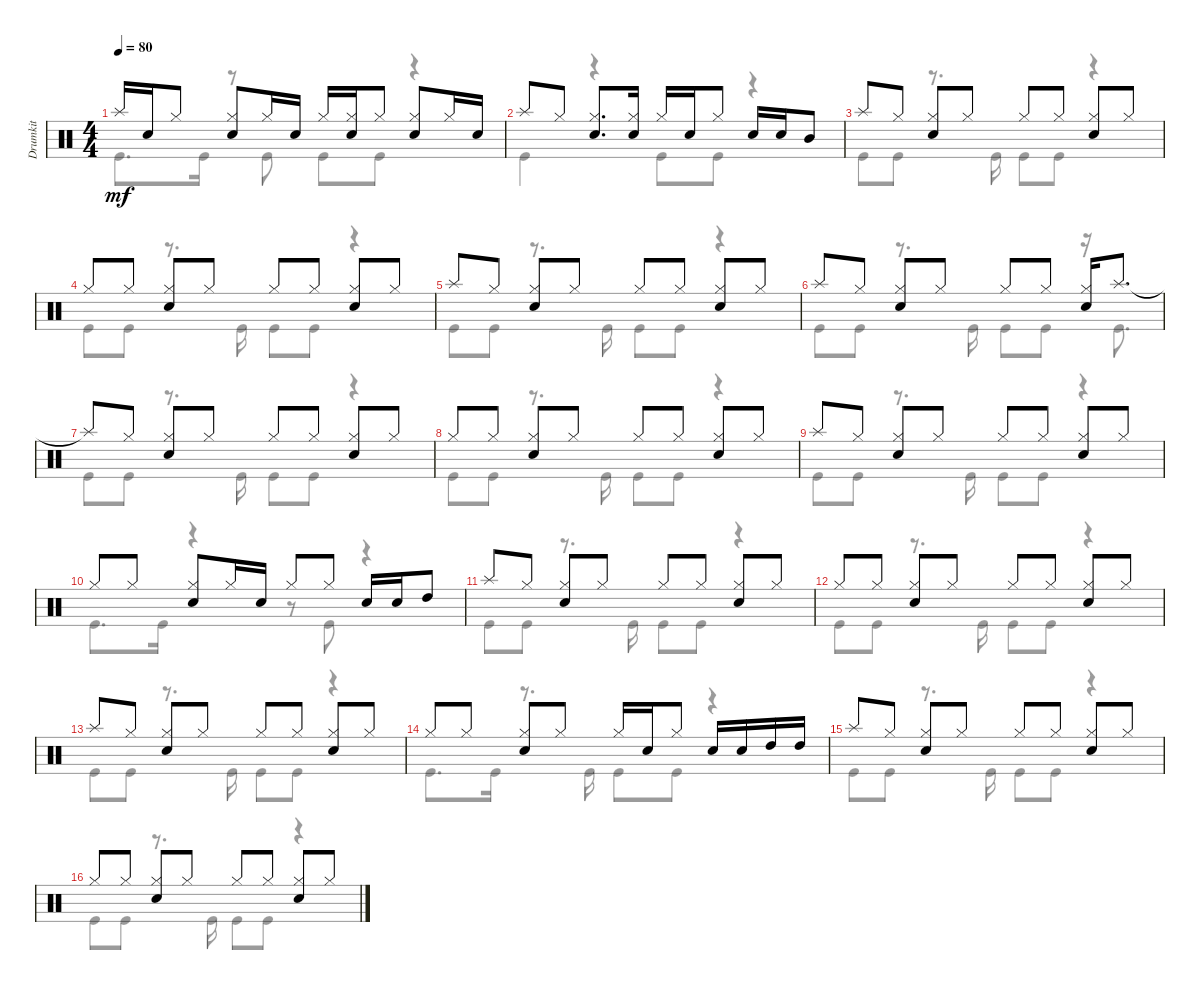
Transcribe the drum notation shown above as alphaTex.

\track ("Drumkit" "Drumkit") {instrument percussion}
\staff {score}
\articulation defaults
\voice
\ts (4 4)
\tempo 80
\clef neutral
\ks c "Splash (hit)".16{dy mf} "Snare (hit) 2".16 "Hi-Hat (closed)".8
("Hi-Hat (closed)" "Snare (hit) 2").8 "Hi-Hat (closed)".16 "Snare (hit) 2".16 "Hi-Hat (closed)".16 ("Hi-Hat (closed)" "Snare (hit) 2").16 "Hi-Hat (closed)".8 ("Hi-Hat (closed)" "Snare (hit) 2").8 "Hi-Hat (closed)".16 "Snare (hit) 2".16 |
"Splash (hit)".8 "Hi-Hat (closed)".8 ("Hi-Hat (closed)" "Snare (hit) 2").8{d} ("Hi-Hat (closed)" "Snare (hit) 2").16 "Hi-Hat (closed)".16 "Snare (hit) 2".16 "Hi-Hat (closed)".8 "Snare (hit) 2".16 "Snare (hit) 2".16 "Mid Tom (hit)".8 |
"Splash (hit)".8 "Hi-Hat (closed)".8 ("Hi-Hat (closed)" "Snare (hit) 2").8 "Hi-Hat (closed)".8 "Hi-Hat (closed)".8 "Hi-Hat (closed)".8 ("Hi-Hat (closed)" "Snare (hit) 2").8 "Hi-Hat (closed)".8 |
"Hi-Hat (closed)".8 "Hi-Hat (closed)".8 ("Hi-Hat (closed)" "Snare (hit) 2").8 "Hi-Hat (closed)".8 "Hi-Hat (closed)".8 "Hi-Hat (closed)".8 ("Hi-Hat (closed)" "Snare (hit) 2").8 "Hi-Hat (closed)".8 |
"Splash (hit)".8 "Hi-Hat (closed)".8 ("Hi-Hat (closed)" "Snare (hit) 2").8 "Hi-Hat (closed)".8 "Hi-Hat (closed)".8 "Hi-Hat (closed)".8 ("Hi-Hat (closed)" "Snare (hit) 2").8 "Hi-Hat (closed)".8 |
"Splash (hit)".8 "Hi-Hat (closed)".8 ("Hi-Hat (closed)" "Snare (hit) 2").8 "Hi-Hat (closed)".8 "Hi-Hat (closed)".8 "Hi-Hat (closed)".8 ("Hi-Hat (closed)" "Snare (hit) 2").16 "Splash (hit)".8{d} |
"Splash (hit)"{t}.8 "Hi-Hat (closed)".8 ("Hi-Hat (closed)" "Snare (hit) 2").8 "Hi-Hat (closed)".8 "Hi-Hat (closed)".8 "Hi-Hat (closed)".8 ("Hi-Hat (closed)" "Snare (hit) 2").8 "Hi-Hat (closed)".8 |
"Hi-Hat (closed)".8 "Hi-Hat (closed)".8 ("Hi-Hat (closed)" "Snare (hit) 2").8 "Hi-Hat (closed)".8 "Hi-Hat (closed)".8 "Hi-Hat (closed)".8 ("Hi-Hat (closed)" "Snare (hit) 2").8 "Hi-Hat (closed)".8 |
"Splash (hit)".8 "Hi-Hat (closed)".8 ("Hi-Hat (closed)" "Snare (hit) 2").8 "Hi-Hat (closed)".8 "Hi-Hat (closed)".8 "Hi-Hat (closed)".8 ("Hi-Hat (closed)" "Snare (hit) 2").8 "Hi-Hat (closed)".8 |
"Hi-Hat (closed)".8 "Hi-Hat (closed)".8 ("Hi-Hat (closed)" "Snare (hit) 2").8 "Hi-Hat (closed)".16 "Snare (hit) 2".16 "Hi-Hat (closed)".8 "Hi-Hat (closed)".8 "Snare (hit) 2".16 "Snare (hit) 2".16 "High Tom (hit)".8 |
"Splash (hit)".8 "Hi-Hat (closed)".8 ("Hi-Hat (closed)" "Snare (hit) 2").8 "Hi-Hat (closed)".8 "Hi-Hat (closed)".8 "Hi-Hat (closed)".8 ("Hi-Hat (closed)" "Snare (hit) 2").8 "Hi-Hat (closed)".8 |
"Hi-Hat (closed)".8 "Hi-Hat (closed)".8 ("Hi-Hat (closed)" "Snare (hit) 2").8 "Hi-Hat (closed)".8 "Hi-Hat (closed)".8 "Hi-Hat (closed)".8 ("Hi-Hat (closed)" "Snare (hit) 2").8 "Hi-Hat (closed)".8 |
"Splash (hit)".8 "Hi-Hat (closed)".8 ("Hi-Hat (closed)" "Snare (hit) 2").8 "Hi-Hat (closed)".8 "Hi-Hat (closed)".8 "Hi-Hat (closed)".8 ("Hi-Hat (closed)" "Snare (hit) 2").8 "Hi-Hat (closed)".8 |
"Hi-Hat (closed)".8 "Hi-Hat (closed)".8 ("Hi-Hat (closed)" "Snare (hit) 2").8 "Hi-Hat (closed)".8 "Hi-Hat (closed)".16 "Snare (hit) 2".16 "Hi-Hat (closed)".8 "Snare (hit) 2".16 "Snare (hit) 2".16 "High Tom (hit)".16 "High Tom (hit)".16 |
"Splash (hit)".8 "Hi-Hat (closed)".8 ("Hi-Hat (closed)" "Snare (hit) 2").8 "Hi-Hat (closed)".8 "Hi-Hat (closed)".8 "Hi-Hat (closed)".8 ("Hi-Hat (closed)" "Snare (hit) 2").8 "Hi-Hat (closed)".8 |
"Hi-Hat (closed)".8 "Hi-Hat (closed)".8 ("Hi-Hat (closed)" "Snare (hit) 2").8 "Hi-Hat (closed)".8 "Hi-Hat (closed)".8 "Hi-Hat (closed)".8 ("Hi-Hat (closed)" "Snare (hit) 2").8 "Hi-Hat (closed)".8
\voice
\clef neutral
\ottava regular
\simile none
\ks c "Kick (hit)".8{d dy mf} "Kick (hit)".16
r.8 "Kick (hit)".8 "Kick (hit)".8 "Kick (hit)".8 r.4 |
"Kick (hit)".4 r.4 "Kick (hit)".8 "Kick (hit)".8 r.4 |
"Kick (hit)".8 "Kick (hit)".8 r.8{d} "Kick (hit)".16 "Kick (hit)".8 "Kick (hit)".8 r.4 |
"Kick (hit)".8 "Kick (hit)".8 r.8{d} "Kick (hit)".16 "Kick (hit)".8 "Kick (hit)".8 r.4 |
"Kick (hit)".8 "Kick (hit)".8 r.8{d} "Kick (hit)".16 "Kick (hit)".8 "Kick (hit)".8 r.4 |
"Kick (hit)".8 "Kick (hit)".8 r.8{d} "Kick (hit)".16 "Kick (hit)".8 "Kick (hit)".8 r.16 "Kick (hit)".8{d} |
"Kick (hit)".8 "Kick (hit)".8 r.8{d} "Kick (hit)".16 "Kick (hit)".8 "Kick (hit)".8 r.4 |
"Kick (hit)".8 "Kick (hit)".8 r.8{d} "Kick (hit)".16 "Kick (hit)".8 "Kick (hit)".8 r.4 |
"Kick (hit)".8 "Kick (hit)".8 r.8{d} "Kick (hit)".16 "Kick (hit)".8 "Kick (hit)".8 r.4 |
"Kick (hit)".8{d} "Kick (hit)".16 r.4 r.8 "Kick (hit)".8 r.4 |
"Kick (hit)".8 "Kick (hit)".8 r.8{d} "Kick (hit)".16 "Kick (hit)".8 "Kick (hit)".8 r.4 |
"Kick (hit)".8 "Kick (hit)".8 r.8{d} "Kick (hit)".16 "Kick (hit)".8 "Kick (hit)".8 r.4 |
"Kick (hit)".8 "Kick (hit)".8 r.8{d} "Kick (hit)".16 "Kick (hit)".8 "Kick (hit)".8 r.4 |
"Kick (hit)".8{d} "Kick (hit)".16 r.8{d} "Kick (hit)".16 "Kick (hit)".8 "Kick (hit)".8 r.4 |
"Kick (hit)".8 "Kick (hit)".8 r.8{d} "Kick (hit)".16 "Kick (hit)".8 "Kick (hit)".8 r.4 |
"Kick (hit)".8 "Kick (hit)".8 r.8{d} "Kick (hit)".16 "Kick (hit)".8 "Kick (hit)".8 r.4
